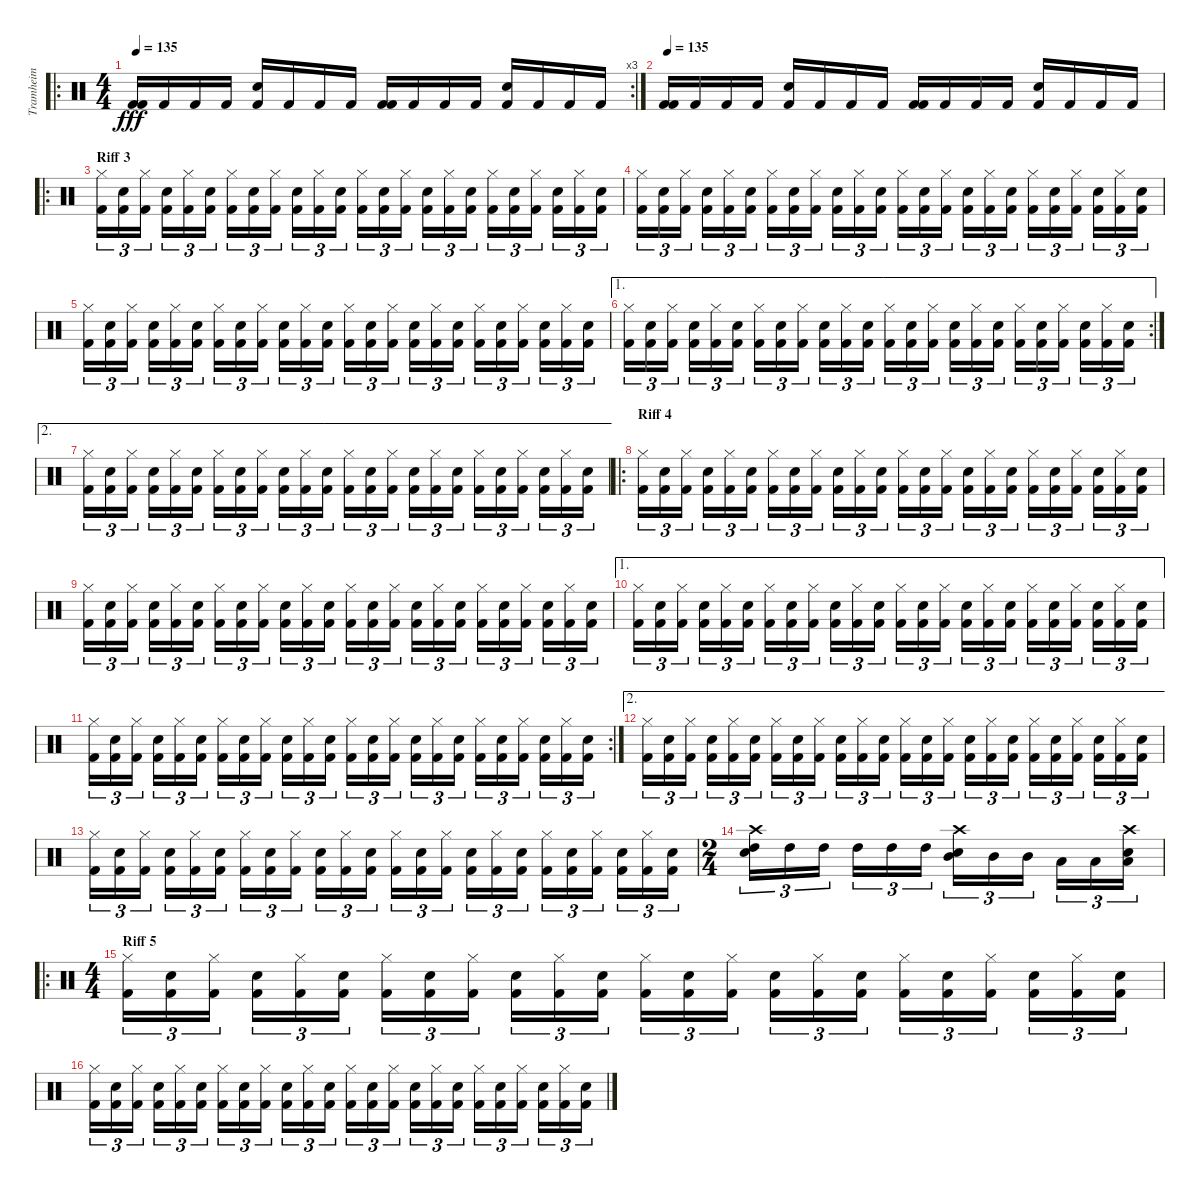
\track ("Tramheim" "Tramheim") {instrument percussion}
\staff {score}
\articulation defaults
\ro
\rc 3
\ts (4 4)
\tempo 135
\clef neutral
\ks c
("Kick (hit) 2" "Kick (hit) 2").16{dy fff} "Kick (hit) 2".16 "Kick (hit) 2".16 "Kick (hit) 2".16 ("Electric Snare (hit)" "Kick (hit) 2").16 "Kick (hit) 2".16 "Kick (hit) 2".16 "Kick (hit) 2".16 ("Kick (hit) 2" "Kick (hit) 2").16 "Kick (hit) 2".16 "Kick (hit) 2".16 "Kick (hit) 2".16 ("Electric Snare (hit)" "Kick (hit) 2").16 "Kick (hit) 2".16 "Kick (hit) 2".16 "Kick (hit) 2".16 |
\tempo 135
("Kick (hit) 2" "Kick (hit) 2").16 "Kick (hit) 2".16 "Kick (hit) 2".16 "Kick (hit) 2".16 ("Electric Snare (hit)" "Kick (hit) 2").16 "Kick (hit) 2".16 "Kick (hit) 2".16 "Kick (hit) 2".16 ("Kick (hit) 2" "Kick (hit) 2").16 "Kick (hit) 2".16 "Kick (hit) 2".16 "Kick (hit) 2".16 ("Electric Snare (hit)" "Kick (hit) 2").16 "Kick (hit) 2".16 "Kick (hit) 2".16 "Kick (hit) 2".16 |
\ro
\section ("" "Riff 3")
("Hi-Hat (closed)" "Kick (hit) 2").16{tu (3 2)} ("Snare (hit) 2" "Kick (hit) 2").16{tu (3 2)} ("Hi-Hat (closed)" "Kick (hit) 2").16{tu (3 2)} ("Snare (hit) 2" "Kick (hit) 2").16{tu (3 2)} ("Hi-Hat (closed)" "Kick (hit) 2").16{tu (3 2)} ("Snare (hit) 2" "Kick (hit) 2").16{tu (3 2)} ("Hi-Hat (closed)" "Kick (hit) 2").16{tu (3 2)} ("Snare (hit) 2" "Kick (hit) 2").16{tu (3 2)} ("Hi-Hat (closed)" "Kick (hit) 2").16{tu (3 2)} ("Snare (hit) 2" "Kick (hit) 2").16{tu (3 2)} ("Hi-Hat (closed)" "Kick (hit) 2").16{tu (3 2)} ("Snare (hit) 2" "Kick (hit) 2").16{tu (3 2)} ("Hi-Hat (closed)" "Kick (hit) 2").16{tu (3 2)} ("Snare (hit) 2" "Kick (hit) 2").16{tu (3 2)} ("Hi-Hat (closed)" "Kick (hit) 2").16{tu (3 2)} ("Snare (hit) 2" "Kick (hit) 2").16{tu (3 2)} ("Hi-Hat (closed)" "Kick (hit) 2").16{tu (3 2)} ("Snare (hit) 2" "Kick (hit) 2").16{tu (3 2)} ("Hi-Hat (closed)" "Kick (hit) 2").16{tu (3 2)} ("Snare (hit) 2" "Kick (hit) 2").16{tu (3 2)} ("Hi-Hat (closed)" "Kick (hit) 2").16{tu (3 2)} ("Snare (hit) 2" "Kick (hit) 2").16{tu (3 2)} ("Hi-Hat (closed)" "Kick (hit) 2").16{tu (3 2)} ("Snare (hit) 2" "Kick (hit) 2").16{tu (3 2)} |
("Hi-Hat (closed)" "Kick (hit) 2").16{tu (3 2)} ("Snare (hit) 2" "Kick (hit) 2").16{tu (3 2)} ("Hi-Hat (closed)" "Kick (hit) 2").16{tu (3 2)} ("Snare (hit) 2" "Kick (hit) 2").16{tu (3 2)} ("Hi-Hat (closed)" "Kick (hit) 2").16{tu (3 2)} ("Snare (hit) 2" "Kick (hit) 2").16{tu (3 2)} ("Hi-Hat (closed)" "Kick (hit) 2").16{tu (3 2)} ("Snare (hit) 2" "Kick (hit) 2").16{tu (3 2)} ("Hi-Hat (closed)" "Kick (hit) 2").16{tu (3 2)} ("Snare (hit) 2" "Kick (hit) 2").16{tu (3 2)} ("Hi-Hat (closed)" "Kick (hit) 2").16{tu (3 2)} ("Snare (hit) 2" "Kick (hit) 2").16{tu (3 2)} ("Hi-Hat (closed)" "Kick (hit) 2").16{tu (3 2)} ("Snare (hit) 2" "Kick (hit) 2").16{tu (3 2)} ("Hi-Hat (closed)" "Kick (hit) 2").16{tu (3 2)} ("Snare (hit) 2" "Kick (hit) 2").16{tu (3 2)} ("Hi-Hat (closed)" "Kick (hit) 2").16{tu (3 2)} ("Snare (hit) 2" "Kick (hit) 2").16{tu (3 2)} ("Hi-Hat (closed)" "Kick (hit) 2").16{tu (3 2)} ("Snare (hit) 2" "Kick (hit) 2").16{tu (3 2)} ("Hi-Hat (closed)" "Kick (hit) 2").16{tu (3 2)} ("Snare (hit) 2" "Kick (hit) 2").16{tu (3 2)} ("Hi-Hat (closed)" "Kick (hit) 2").16{tu (3 2)} ("Snare (hit) 2" "Kick (hit) 2").16{tu (3 2)} |
("Hi-Hat (closed)" "Kick (hit) 2").16{tu (3 2)} ("Snare (hit) 2" "Kick (hit) 2").16{tu (3 2)} ("Hi-Hat (closed)" "Kick (hit) 2").16{tu (3 2)} ("Snare (hit) 2" "Kick (hit) 2").16{tu (3 2)} ("Hi-Hat (closed)" "Kick (hit) 2").16{tu (3 2)} ("Snare (hit) 2" "Kick (hit) 2").16{tu (3 2)} ("Hi-Hat (closed)" "Kick (hit) 2").16{tu (3 2)} ("Snare (hit) 2" "Kick (hit) 2").16{tu (3 2)} ("Hi-Hat (closed)" "Kick (hit) 2").16{tu (3 2)} ("Snare (hit) 2" "Kick (hit) 2").16{tu (3 2)} ("Hi-Hat (closed)" "Kick (hit) 2").16{tu (3 2)} ("Snare (hit) 2" "Kick (hit) 2").16{tu (3 2)} ("Hi-Hat (closed)" "Kick (hit) 2").16{tu (3 2)} ("Snare (hit) 2" "Kick (hit) 2").16{tu (3 2)} ("Hi-Hat (closed)" "Kick (hit) 2").16{tu (3 2)} ("Snare (hit) 2" "Kick (hit) 2").16{tu (3 2)} ("Hi-Hat (closed)" "Kick (hit) 2").16{tu (3 2)} ("Snare (hit) 2" "Kick (hit) 2").16{tu (3 2)} ("Hi-Hat (closed)" "Kick (hit) 2").16{tu (3 2)} ("Snare (hit) 2" "Kick (hit) 2").16{tu (3 2)} ("Hi-Hat (closed)" "Kick (hit) 2").16{tu (3 2)} ("Snare (hit) 2" "Kick (hit) 2").16{tu (3 2)} ("Hi-Hat (closed)" "Kick (hit) 2").16{tu (3 2)} ("Snare (hit) 2" "Kick (hit) 2").16{tu (3 2)} |
\ae 1
\rc 2
("Hi-Hat (closed)" "Kick (hit) 2").16{tu (3 2)} ("Snare (hit) 2" "Kick (hit) 2").16{tu (3 2)} ("Hi-Hat (closed)" "Kick (hit) 2").16{tu (3 2)} ("Snare (hit) 2" "Kick (hit) 2").16{tu (3 2)} ("Hi-Hat (closed)" "Kick (hit) 2").16{tu (3 2)} ("Snare (hit) 2" "Kick (hit) 2").16{tu (3 2)} ("Hi-Hat (closed)" "Kick (hit) 2").16{tu (3 2)} ("Snare (hit) 2" "Kick (hit) 2").16{tu (3 2)} ("Hi-Hat (closed)" "Kick (hit) 2").16{tu (3 2)} ("Snare (hit) 2" "Kick (hit) 2").16{tu (3 2)} ("Hi-Hat (closed)" "Kick (hit) 2").16{tu (3 2)} ("Snare (hit) 2" "Kick (hit) 2").16{tu (3 2)} ("Hi-Hat (closed)" "Kick (hit) 2").16{tu (3 2)} ("Snare (hit) 2" "Kick (hit) 2").16{tu (3 2)} ("Hi-Hat (closed)" "Kick (hit) 2").16{tu (3 2)} ("Snare (hit) 2" "Kick (hit) 2").16{tu (3 2)} ("Hi-Hat (closed)" "Kick (hit) 2").16{tu (3 2)} ("Snare (hit) 2" "Kick (hit) 2").16{tu (3 2)} ("Hi-Hat (closed)" "Kick (hit) 2").16{tu (3 2)} ("Snare (hit) 2" "Kick (hit) 2").16{tu (3 2)} ("Hi-Hat (closed)" "Kick (hit) 2").16{tu (3 2)} ("Snare (hit) 2" "Kick (hit) 2").16{tu (3 2)} ("Hi-Hat (closed)" "Kick (hit) 2").16{tu (3 2)} ("Snare (hit) 2" "Kick (hit) 2").16{tu (3 2)} |
\ae 2
("Hi-Hat (closed)" "Kick (hit) 2").16{tu (3 2)} ("Snare (hit) 2" "Kick (hit) 2").16{tu (3 2)} ("Hi-Hat (closed)" "Kick (hit) 2").16{tu (3 2)} ("Snare (hit) 2" "Kick (hit) 2").16{tu (3 2)} ("Hi-Hat (closed)" "Kick (hit) 2").16{tu (3 2)} ("Snare (hit) 2" "Kick (hit) 2").16{tu (3 2)} ("Hi-Hat (closed)" "Kick (hit) 2").16{tu (3 2)} ("Snare (hit) 2" "Kick (hit) 2").16{tu (3 2)} ("Hi-Hat (closed)" "Kick (hit) 2").16{tu (3 2)} ("Snare (hit) 2" "Kick (hit) 2").16{tu (3 2)} ("Hi-Hat (closed)" "Kick (hit) 2").16{tu (3 2)} ("Snare (hit) 2" "Kick (hit) 2").16{tu (3 2)} ("Hi-Hat (closed)" "Kick (hit) 2").16{tu (3 2)} ("Snare (hit) 2" "Kick (hit) 2").16{tu (3 2)} ("Hi-Hat (closed)" "Kick (hit) 2").16{tu (3 2)} ("Snare (hit) 2" "Kick (hit) 2").16{tu (3 2)} ("Hi-Hat (closed)" "Kick (hit) 2").16{tu (3 2)} ("Snare (hit) 2" "Kick (hit) 2").16{tu (3 2)} ("Hi-Hat (closed)" "Kick (hit) 2").16{tu (3 2)} ("Snare (hit) 2" "Kick (hit) 2").16{tu (3 2)} ("Hi-Hat (closed)" "Kick (hit) 2").16{tu (3 2)} ("Snare (hit) 2" "Kick (hit) 2").16{tu (3 2)} ("Hi-Hat (closed)" "Kick (hit) 2").16{tu (3 2)} ("Snare (hit) 2" "Kick (hit) 2").16{tu (3 2)} |
\ro
\section ("" "Riff 4")
("Hi-Hat (closed)" "Kick (hit) 2").16{tu (3 2)} ("Snare (hit) 2" "Kick (hit) 2").16{tu (3 2)} ("Hi-Hat (closed)" "Kick (hit) 2").16{tu (3 2)} ("Snare (hit) 2" "Kick (hit) 2").16{tu (3 2)} ("Hi-Hat (closed)" "Kick (hit) 2").16{tu (3 2)} ("Snare (hit) 2" "Kick (hit) 2").16{tu (3 2)} ("Hi-Hat (closed)" "Kick (hit) 2").16{tu (3 2)} ("Snare (hit) 2" "Kick (hit) 2").16{tu (3 2)} ("Hi-Hat (closed)" "Kick (hit) 2").16{tu (3 2)} ("Snare (hit) 2" "Kick (hit) 2").16{tu (3 2)} ("Hi-Hat (closed)" "Kick (hit) 2").16{tu (3 2)} ("Snare (hit) 2" "Kick (hit) 2").16{tu (3 2)} ("Hi-Hat (closed)" "Kick (hit) 2").16{tu (3 2)} ("Snare (hit) 2" "Kick (hit) 2").16{tu (3 2)} ("Hi-Hat (closed)" "Kick (hit) 2").16{tu (3 2)} ("Snare (hit) 2" "Kick (hit) 2").16{tu (3 2)} ("Hi-Hat (closed)" "Kick (hit) 2").16{tu (3 2)} ("Snare (hit) 2" "Kick (hit) 2").16{tu (3 2)} ("Hi-Hat (closed)" "Kick (hit) 2").16{tu (3 2)} ("Snare (hit) 2" "Kick (hit) 2").16{tu (3 2)} ("Hi-Hat (closed)" "Kick (hit) 2").16{tu (3 2)} ("Snare (hit) 2" "Kick (hit) 2").16{tu (3 2)} ("Hi-Hat (closed)" "Kick (hit) 2").16{tu (3 2)} ("Snare (hit) 2" "Kick (hit) 2").16{tu (3 2)} |
("Hi-Hat (closed)" "Kick (hit) 2").16{tu (3 2)} ("Snare (hit) 2" "Kick (hit) 2").16{tu (3 2)} ("Hi-Hat (closed)" "Kick (hit) 2").16{tu (3 2)} ("Snare (hit) 2" "Kick (hit) 2").16{tu (3 2)} ("Hi-Hat (closed)" "Kick (hit) 2").16{tu (3 2)} ("Snare (hit) 2" "Kick (hit) 2").16{tu (3 2)} ("Hi-Hat (closed)" "Kick (hit) 2").16{tu (3 2)} ("Snare (hit) 2" "Kick (hit) 2").16{tu (3 2)} ("Hi-Hat (closed)" "Kick (hit) 2").16{tu (3 2)} ("Snare (hit) 2" "Kick (hit) 2").16{tu (3 2)} ("Hi-Hat (closed)" "Kick (hit) 2").16{tu (3 2)} ("Snare (hit) 2" "Kick (hit) 2").16{tu (3 2)} ("Hi-Hat (closed)" "Kick (hit) 2").16{tu (3 2)} ("Snare (hit) 2" "Kick (hit) 2").16{tu (3 2)} ("Hi-Hat (closed)" "Kick (hit) 2").16{tu (3 2)} ("Snare (hit) 2" "Kick (hit) 2").16{tu (3 2)} ("Hi-Hat (closed)" "Kick (hit) 2").16{tu (3 2)} ("Snare (hit) 2" "Kick (hit) 2").16{tu (3 2)} ("Hi-Hat (closed)" "Kick (hit) 2").16{tu (3 2)} ("Snare (hit) 2" "Kick (hit) 2").16{tu (3 2)} ("Hi-Hat (closed)" "Kick (hit) 2").16{tu (3 2)} ("Snare (hit) 2" "Kick (hit) 2").16{tu (3 2)} ("Hi-Hat (closed)" "Kick (hit) 2").16{tu (3 2)} ("Snare (hit) 2" "Kick (hit) 2").16{tu (3 2)} |
\ae 1
("Hi-Hat (closed)" "Kick (hit) 2").16{tu (3 2)} ("Snare (hit) 2" "Kick (hit) 2").16{tu (3 2)} ("Hi-Hat (closed)" "Kick (hit) 2").16{tu (3 2)} ("Snare (hit) 2" "Kick (hit) 2").16{tu (3 2)} ("Hi-Hat (closed)" "Kick (hit) 2").16{tu (3 2)} ("Snare (hit) 2" "Kick (hit) 2").16{tu (3 2)} ("Hi-Hat (closed)" "Kick (hit) 2").16{tu (3 2)} ("Snare (hit) 2" "Kick (hit) 2").16{tu (3 2)} ("Hi-Hat (closed)" "Kick (hit) 2").16{tu (3 2)} ("Snare (hit) 2" "Kick (hit) 2").16{tu (3 2)} ("Hi-Hat (closed)" "Kick (hit) 2").16{tu (3 2)} ("Snare (hit) 2" "Kick (hit) 2").16{tu (3 2)} ("Hi-Hat (closed)" "Kick (hit) 2").16{tu (3 2)} ("Snare (hit) 2" "Kick (hit) 2").16{tu (3 2)} ("Hi-Hat (closed)" "Kick (hit) 2").16{tu (3 2)} ("Snare (hit) 2" "Kick (hit) 2").16{tu (3 2)} ("Hi-Hat (closed)" "Kick (hit) 2").16{tu (3 2)} ("Snare (hit) 2" "Kick (hit) 2").16{tu (3 2)} ("Hi-Hat (closed)" "Kick (hit) 2").16{tu (3 2)} ("Snare (hit) 2" "Kick (hit) 2").16{tu (3 2)} ("Hi-Hat (closed)" "Kick (hit) 2").16{tu (3 2)} ("Snare (hit) 2" "Kick (hit) 2").16{tu (3 2)} ("Hi-Hat (closed)" "Kick (hit) 2").16{tu (3 2)} ("Snare (hit) 2" "Kick (hit) 2").16{tu (3 2)} |
\rc 2
("Hi-Hat (closed)" "Kick (hit) 2").16{tu (3 2)} ("Snare (hit) 2" "Kick (hit) 2").16{tu (3 2)} ("Hi-Hat (closed)" "Kick (hit) 2").16{tu (3 2)} ("Snare (hit) 2" "Kick (hit) 2").16{tu (3 2)} ("Hi-Hat (closed)" "Kick (hit) 2").16{tu (3 2)} ("Snare (hit) 2" "Kick (hit) 2").16{tu (3 2)} ("Hi-Hat (closed)" "Kick (hit) 2").16{tu (3 2)} ("Snare (hit) 2" "Kick (hit) 2").16{tu (3 2)} ("Hi-Hat (closed)" "Kick (hit) 2").16{tu (3 2)} ("Snare (hit) 2" "Kick (hit) 2").16{tu (3 2)} ("Hi-Hat (closed)" "Kick (hit) 2").16{tu (3 2)} ("Snare (hit) 2" "Kick (hit) 2").16{tu (3 2)} ("Hi-Hat (closed)" "Kick (hit) 2").16{tu (3 2)} ("Snare (hit) 2" "Kick (hit) 2").16{tu (3 2)} ("Hi-Hat (closed)" "Kick (hit) 2").16{tu (3 2)} ("Snare (hit) 2" "Kick (hit) 2").16{tu (3 2)} ("Hi-Hat (closed)" "Kick (hit) 2").16{tu (3 2)} ("Snare (hit) 2" "Kick (hit) 2").16{tu (3 2)} ("Hi-Hat (closed)" "Kick (hit) 2").16{tu (3 2)} ("Snare (hit) 2" "Kick (hit) 2").16{tu (3 2)} ("Hi-Hat (closed)" "Kick (hit) 2").16{tu (3 2)} ("Snare (hit) 2" "Kick (hit) 2").16{tu (3 2)} ("Hi-Hat (closed)" "Kick (hit) 2").16{tu (3 2)} ("Snare (hit) 2" "Kick (hit) 2").16{tu (3 2)} |
\ae 2
("Hi-Hat (closed)" "Kick (hit) 2").16{tu (3 2)} ("Snare (hit) 2" "Kick (hit) 2").16{tu (3 2)} ("Hi-Hat (closed)" "Kick (hit) 2").16{tu (3 2)} ("Snare (hit) 2" "Kick (hit) 2").16{tu (3 2)} ("Hi-Hat (closed)" "Kick (hit) 2").16{tu (3 2)} ("Snare (hit) 2" "Kick (hit) 2").16{tu (3 2)} ("Hi-Hat (closed)" "Kick (hit) 2").16{tu (3 2)} ("Snare (hit) 2" "Kick (hit) 2").16{tu (3 2)} ("Hi-Hat (closed)" "Kick (hit) 2").16{tu (3 2)} ("Snare (hit) 2" "Kick (hit) 2").16{tu (3 2)} ("Hi-Hat (closed)" "Kick (hit) 2").16{tu (3 2)} ("Snare (hit) 2" "Kick (hit) 2").16{tu (3 2)} ("Hi-Hat (closed)" "Kick (hit) 2").16{tu (3 2)} ("Snare (hit) 2" "Kick (hit) 2").16{tu (3 2)} ("Hi-Hat (closed)" "Kick (hit) 2").16{tu (3 2)} ("Snare (hit) 2" "Kick (hit) 2").16{tu (3 2)} ("Hi-Hat (closed)" "Kick (hit) 2").16{tu (3 2)} ("Snare (hit) 2" "Kick (hit) 2").16{tu (3 2)} ("Hi-Hat (closed)" "Kick (hit) 2").16{tu (3 2)} ("Snare (hit) 2" "Kick (hit) 2").16{tu (3 2)} ("Hi-Hat (closed)" "Kick (hit) 2").16{tu (3 2)} ("Snare (hit) 2" "Kick (hit) 2").16{tu (3 2)} ("Hi-Hat (closed)" "Kick (hit) 2").16{tu (3 2)} ("Snare (hit) 2" "Kick (hit) 2").16{tu (3 2)} |
("Hi-Hat (closed)" "Kick (hit) 2").16{tu (3 2)} ("Snare (hit) 2" "Kick (hit) 2").16{tu (3 2)} ("Hi-Hat (closed)" "Kick (hit) 2").16{tu (3 2)} ("Snare (hit) 2" "Kick (hit) 2").16{tu (3 2)} ("Hi-Hat (closed)" "Kick (hit) 2").16{tu (3 2)} ("Snare (hit) 2" "Kick (hit) 2").16{tu (3 2)} ("Hi-Hat (closed)" "Kick (hit) 2").16{tu (3 2)} ("Snare (hit) 2" "Kick (hit) 2").16{tu (3 2)} ("Hi-Hat (closed)" "Kick (hit) 2").16{tu (3 2)} ("Snare (hit) 2" "Kick (hit) 2").16{tu (3 2)} ("Hi-Hat (closed)" "Kick (hit) 2").16{tu (3 2)} ("Snare (hit) 2" "Kick (hit) 2").16{tu (3 2)} ("Hi-Hat (closed)" "Kick (hit) 2").16{tu (3 2)} ("Snare (hit) 2" "Kick (hit) 2").16{tu (3 2)} ("Hi-Hat (closed)" "Kick (hit) 2").16{tu (3 2)} ("Snare (hit) 2" "Kick (hit) 2").16{tu (3 2)} ("Hi-Hat (closed)" "Kick (hit) 2").16{tu (3 2)} ("Snare (hit) 2" "Kick (hit) 2").16{tu (3 2)} ("Hi-Hat (closed)" "Kick (hit) 2").16{tu (3 2)} ("Snare (hit) 2" "Kick (hit) 2").16{tu (3 2)} ("Hi-Hat (closed)" "Kick (hit) 2").16{tu (3 2)} ("Snare (hit) 2" "Kick (hit) 2").16{tu (3 2)} ("Hi-Hat (closed)" "Kick (hit) 2").16{tu (3 2)} ("Snare (hit) 2" "Kick (hit) 2").16{tu (3 2)} |
\ts (2 4)
("High Tom (hit)" "Snare (hit) 2" "Crash high (hit)").16{tu (3 2)} "High Tom (hit)".16{tu (3 2)} "High Tom (hit)".16{tu (3 2)} "High Tom (hit)".16{tu (3 2)} "High Tom (hit)".16{tu (3 2)} "High Tom (hit)".16{tu (3 2)} ("Mid Tom (hit)" "Crash high (hit)" "Snare (hit) 2").16{tu (3 2)} "Mid Tom (hit)".16{tu (3 2)} "Mid Tom (hit)".16{tu (3 2)} "Low Tom (hit)".16{tu (3 2)} "Low Tom (hit)".16{tu (3 2)} ("Low Tom (hit)" "Crash high (hit)" "Snare (hit) 2").16{tu (3 2)} |
\ro
\ts (4 4)
\section ("" "Riff 5")
("Hi-Hat (closed)" "Kick (hit) 2").16{tu (3 2)} ("Snare (hit) 2" "Kick (hit) 2").16{tu (3 2)} ("Hi-Hat (closed)" "Kick (hit) 2").16{tu (3 2)} ("Snare (hit) 2" "Kick (hit) 2").16{tu (3 2)} ("Hi-Hat (closed)" "Kick (hit) 2").16{tu (3 2)} ("Snare (hit) 2" "Kick (hit) 2").16{tu (3 2)} ("Hi-Hat (closed)" "Kick (hit) 2").16{tu (3 2)} ("Snare (hit) 2" "Kick (hit) 2").16{tu (3 2)} ("Hi-Hat (closed)" "Kick (hit) 2").16{tu (3 2)} ("Snare (hit) 2" "Kick (hit) 2").16{tu (3 2)} ("Hi-Hat (closed)" "Kick (hit) 2").16{tu (3 2)} ("Snare (hit) 2" "Kick (hit) 2").16{tu (3 2)} ("Hi-Hat (closed)" "Kick (hit) 2").16{tu (3 2)} ("Snare (hit) 2" "Kick (hit) 2").16{tu (3 2)} ("Hi-Hat (closed)" "Kick (hit) 2").16{tu (3 2)} ("Snare (hit) 2" "Kick (hit) 2").16{tu (3 2)} ("Hi-Hat (closed)" "Kick (hit) 2").16{tu (3 2)} ("Snare (hit) 2" "Kick (hit) 2").16{tu (3 2)} ("Hi-Hat (closed)" "Kick (hit) 2").16{tu (3 2)} ("Snare (hit) 2" "Kick (hit) 2").16{tu (3 2)} ("Hi-Hat (closed)" "Kick (hit) 2").16{tu (3 2)} ("Snare (hit) 2" "Kick (hit) 2").16{tu (3 2)} ("Hi-Hat (closed)" "Kick (hit) 2").16{tu (3 2)} ("Snare (hit) 2" "Kick (hit) 2").16{tu (3 2)} |
("Hi-Hat (closed)" "Kick (hit) 2").16{tu (3 2)} ("Snare (hit) 2" "Kick (hit) 2").16{tu (3 2)} ("Hi-Hat (closed)" "Kick (hit) 2").16{tu (3 2)} ("Snare (hit) 2" "Kick (hit) 2").16{tu (3 2)} ("Hi-Hat (closed)" "Kick (hit) 2").16{tu (3 2)} ("Snare (hit) 2" "Kick (hit) 2").16{tu (3 2)} ("Hi-Hat (closed)" "Kick (hit) 2").16{tu (3 2)} ("Snare (hit) 2" "Kick (hit) 2").16{tu (3 2)} ("Hi-Hat (closed)" "Kick (hit) 2").16{tu (3 2)} ("Snare (hit) 2" "Kick (hit) 2").16{tu (3 2)} ("Hi-Hat (closed)" "Kick (hit) 2").16{tu (3 2)} ("Snare (hit) 2" "Kick (hit) 2").16{tu (3 2)} ("Hi-Hat (closed)" "Kick (hit) 2").16{tu (3 2)} ("Snare (hit) 2" "Kick (hit) 2").16{tu (3 2)} ("Hi-Hat (closed)" "Kick (hit) 2").16{tu (3 2)} ("Snare (hit) 2" "Kick (hit) 2").16{tu (3 2)} ("Hi-Hat (closed)" "Kick (hit) 2").16{tu (3 2)} ("Snare (hit) 2" "Kick (hit) 2").16{tu (3 2)} ("Hi-Hat (closed)" "Kick (hit) 2").16{tu (3 2)} ("Snare (hit) 2" "Kick (hit) 2").16{tu (3 2)} ("Hi-Hat (closed)" "Kick (hit) 2").16{tu (3 2)} ("Snare (hit) 2" "Kick (hit) 2").16{tu (3 2)} ("Hi-Hat (closed)" "Kick (hit) 2").16{tu (3 2)} ("Snare (hit) 2" "Kick (hit) 2").16{tu (3 2)}
